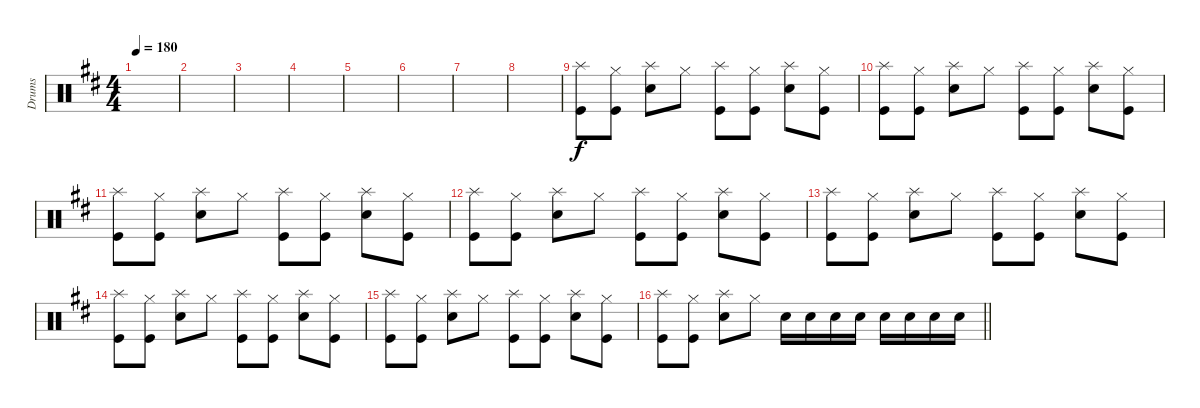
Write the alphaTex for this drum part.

\track ("Drums" "Drums") {instrument percussion}
\staff {score}
\articulation defaults
\ts (4 4)
\tempo 180
\clef neutral
\ks d
|
|
|
|
|
|
|
|
("Kick (hit)" "Splash (hit)").8 ("Kick (hit)" "Hi-Hat (closed)").8 ("Snare (hit) 2" "Splash (hit)").8 "Hi-Hat (closed)".8 ("Kick (hit)" "Splash (hit)").8 ("Kick (hit)" "Hi-Hat (closed)").8 ("Snare (hit) 2" "Splash (hit)").8 ("Kick (hit)" "Hi-Hat (closed)").8 |
("Kick (hit)" "Splash (hit)").8 ("Kick (hit)" "Hi-Hat (closed)").8 ("Snare (hit) 2" "Splash (hit)").8 "Hi-Hat (closed)".8 ("Kick (hit)" "Splash (hit)").8 ("Kick (hit)" "Hi-Hat (closed)").8 ("Snare (hit) 2" "Splash (hit)").8 ("Kick (hit)" "Hi-Hat (closed)").8 |
("Kick (hit)" "Splash (hit)").8 ("Kick (hit)" "Hi-Hat (closed)").8 ("Snare (hit) 2" "Splash (hit)").8 "Hi-Hat (closed)".8 ("Kick (hit)" "Splash (hit)").8 ("Kick (hit)" "Hi-Hat (closed)").8 ("Snare (hit) 2" "Splash (hit)").8 ("Kick (hit)" "Hi-Hat (closed)").8 |
("Kick (hit)" "Splash (hit)").8 ("Kick (hit)" "Hi-Hat (closed)").8 ("Snare (hit) 2" "Splash (hit)").8 "Hi-Hat (closed)".8 ("Kick (hit)" "Splash (hit)").8 ("Kick (hit)" "Hi-Hat (closed)").8 ("Snare (hit) 2" "Splash (hit)").8 ("Kick (hit)" "Hi-Hat (closed)").8 |
("Kick (hit)" "Splash (hit)").8 ("Kick (hit)" "Hi-Hat (closed)").8 ("Snare (hit) 2" "Splash (hit)").8 "Hi-Hat (closed)".8 ("Kick (hit)" "Splash (hit)").8 ("Kick (hit)" "Hi-Hat (closed)").8 ("Snare (hit) 2" "Splash (hit)").8 ("Kick (hit)" "Hi-Hat (closed)").8 |
("Kick (hit)" "Splash (hit)").8 ("Kick (hit)" "Hi-Hat (closed)").8 ("Snare (hit) 2" "Splash (hit)").8 "Hi-Hat (closed)".8 ("Kick (hit)" "Splash (hit)").8 ("Kick (hit)" "Hi-Hat (closed)").8 ("Snare (hit) 2" "Splash (hit)").8 ("Kick (hit)" "Hi-Hat (closed)").8 |
("Kick (hit)" "Splash (hit)").8 ("Kick (hit)" "Hi-Hat (closed)").8 ("Snare (hit) 2" "Splash (hit)").8 "Hi-Hat (closed)".8 ("Kick (hit)" "Splash (hit)").8 ("Kick (hit)" "Hi-Hat (closed)").8 ("Snare (hit) 2" "Splash (hit)").8 ("Kick (hit)" "Hi-Hat (closed)").8 |
\barLineRight lightlight
("Kick (hit)" "Splash (hit)").8 ("Kick (hit)" "Hi-Hat (closed)").8 ("Snare (hit) 2" "Splash (hit)").8 "Hi-Hat (closed)".8 "Snare (hit) 2".16 "Snare (hit) 2".16 "Snare (hit) 2".16 "Snare (hit) 2".16 "Snare (hit) 2".16 "Snare (hit) 2".16 "Snare (hit) 2".16 "Snare (hit) 2".16
